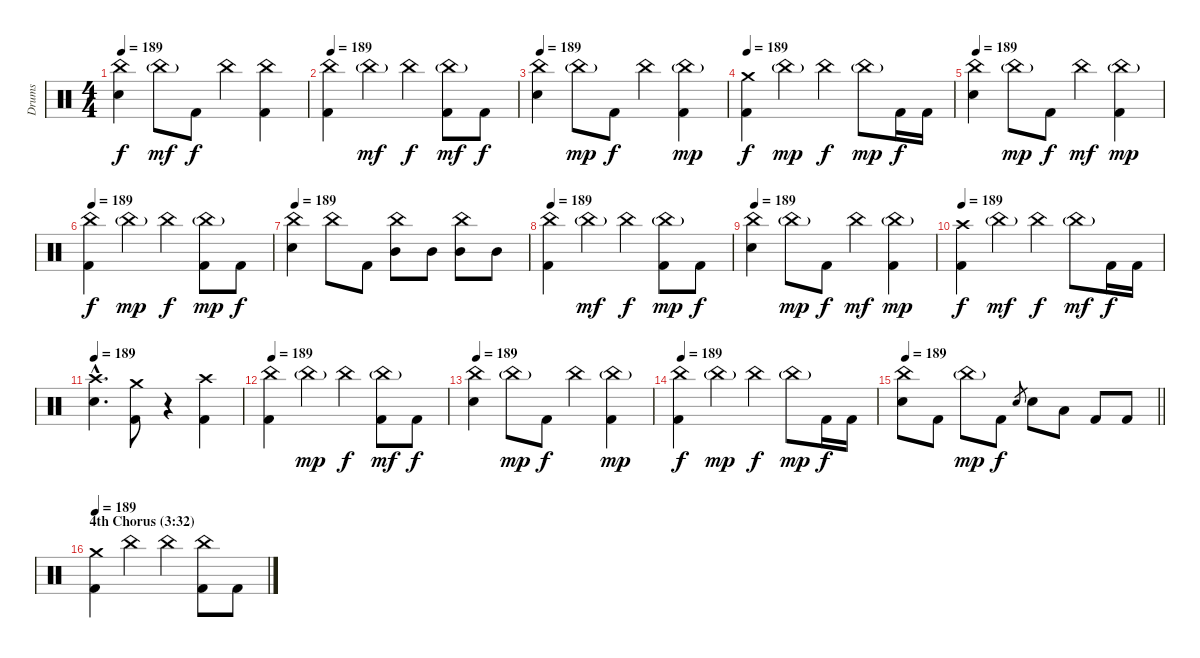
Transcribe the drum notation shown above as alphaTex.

\track ("Drums" "Drums") {instrument percussion}
\staff {score}
\articulation defaults
\ts (4 4)
\tempo 189
\clef neutral
\ks c
("China (hit)" "Snare (hit) 2").4{dy f} "China (hit)"{g}.8{dy mf} "Kick (hit) 2".8{dy f} "China (hit)".4 ("China (hit)" "Kick (hit) 2").4 |
\tempo 189
("China (hit)" "Kick (hit) 2").4 "China (hit)"{g}.4{dy mf} "China (hit)".4{dy f} ("China (hit)"{g} "Kick (hit) 2").8{dy mf} "Kick (hit) 2".8{dy f} |
\tempo 189
("China (hit)" "Snare (hit) 2").4 "China (hit)"{g}.8{dy mp} "Kick (hit) 2".8{dy f} "China (hit)".4 ("China (hit)"{g} "Kick (hit) 2").4{dy mp} |
\tempo 189
("Crash medium (hit)" "Kick (hit) 2").4{dy f} "China (hit)"{g}.4{dy mp} "China (hit)".4{dy f} "China (hit)"{g}.8{dy mp} "Kick (hit) 2".16{dy f} "Kick (hit) 2".16 |
\tempo 189
("China (hit)" "Snare (hit) 2").4 "China (hit)"{g}.8{dy mp} "Kick (hit) 2".8{dy f} "China (hit)".4{dy mf} ("China (hit)"{g} "Kick (hit) 2").4{dy mp} |
\tempo 189
("China (hit)" "Kick (hit) 2").4{dy f} "China (hit)"{g}.4{dy mp} "China (hit)".4{dy f} ("China (hit)"{g} "Kick (hit) 2").8{dy mp} "Kick (hit) 2".8{dy f} |
\tempo 189
("China (hit)" "Snare (hit) 2").4 "China (hit)".8 "Kick (hit) 2".8 ("China (hit)" "Mid Tom (hit)").8 "Mid Tom (hit)".8 ("China (hit)" "Mid Tom (hit)").8 "Mid Tom (hit)".8 |
\tempo 189
("China (hit)" "Kick (hit) 2").4 "China (hit)"{g}.4{dy mf} "China (hit)".4{dy f} ("China (hit)"{g} "Kick (hit) 2").8{dy mp} "Kick (hit) 2".8{dy f} |
\tempo 189
("China (hit)" "Snare (hit) 2").4 "China (hit)"{g}.8{dy mp} "Kick (hit) 2".8{dy f} "China (hit)".4{dy mf} ("China (hit)"{g} "Kick (hit) 2").4{dy mp} |
\tempo 189
("Crash high (hit)" "Kick (hit) 2").4{dy f} "China (hit)"{g}.4{dy mf} "China (hit)".4{dy f} "China (hit)"{g}.8{dy mf} "Kick (hit) 2".16{dy f} "Kick (hit) 2".16 |
\tempo 189
("Crash high (hit)"{hac} "Snare (hit) 2"{hac}).4{d} ("Crash medium (hit)" "Kick (hit) 2").8 r.4 ("Crash high (hit)" "Kick (hit) 2").4 |
\tempo 189
("China (hit)" "Kick (hit) 2").4 "China (hit)"{g}.4{dy mp} "China (hit)".4{dy f} ("China (hit)"{g} "Kick (hit) 2").8{dy mf} "Kick (hit) 2".8{dy f} |
\tempo 189
("China (hit)" "Snare (hit) 2").4 "China (hit)"{g}.8{dy mp} "Kick (hit) 2".8{dy f} "China (hit)".4 ("China (hit)"{g} "Kick (hit) 2").4{dy mp} |
\tempo 189
("China (hit)" "Kick (hit) 2").4{dy f} "China (hit)"{g}.4{dy mp} "China (hit)".4{dy f} "China (hit)"{g}.8{dy mp} "Kick (hit) 2".16{dy f} "Kick (hit) 2".16 |
\tempo 189
\barLineRight lightlight
("China (hit)" "Snare (hit) 2").8 "Kick (hit) 2".8 "China (hit)"{g}.8{dy mp} "Kick (hit) 2".8{dy f} "Snare (hit) 2".8{gr} "Snare (hit) 2".8 "Low Tom (hit)".8 "Kick (hit) 2".8 "Kick (hit) 2".8 |
\section ("" "4th Chorus (3:32)")
\tempo 189
("Crash medium (hit)" "Kick (hit) 2").4 "China (hit)".4 "China (hit)".4 ("China (hit)" "Kick (hit) 2").8 "Kick (hit) 2".8
